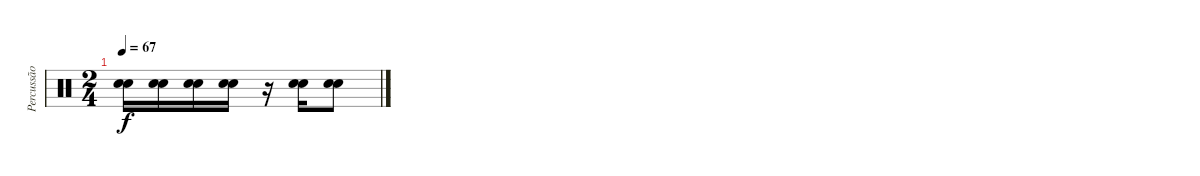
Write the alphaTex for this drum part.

\track ("Percussão" "Percussão") {instrument percussion}
\staff {score}
\articulation defaults
\ts (2 4)
\tempo 67
\clef neutral
\ks c
("Snare (hit) 2" "Electric Snare (hit)").16{dy f} ("Snare (hit) 2" "Electric Snare (hit)").16 ("Snare (hit) 2" "Electric Snare (hit)").16 ("Snare (hit) 2" "Electric Snare (hit)").16 r.16 ("Snare (hit) 2" "Electric Snare (hit)").16 ("Snare (hit) 2" "Electric Snare (hit)").8
